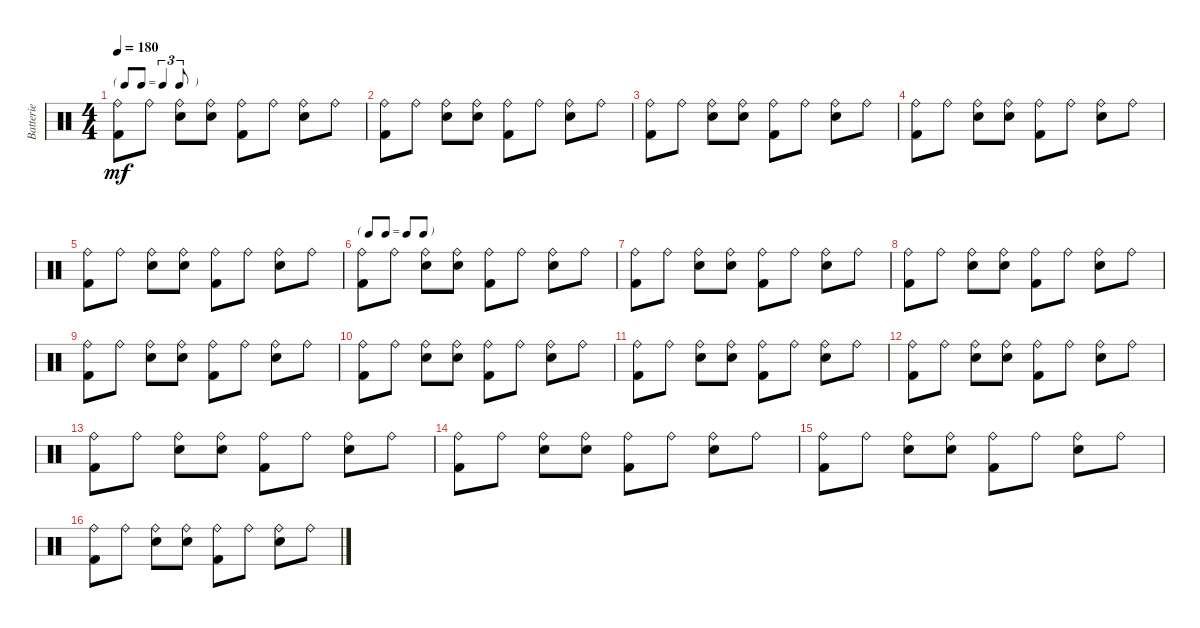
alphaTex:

\track ("Batterie" "Batterie") {instrument percussion}
\staff {score}
\articulation defaults
\ts (4 4)
\tf triplet8th
\tempo 180
\clef neutral
\ks c
("Kick (hit) 2" "Ride (bell)").8{dy mf} "Ride (bell)".8 ("Electric Snare (hit)" "Ride (bell)").8 ("Electric Snare (hit)" "Ride (bell)").8 ("Kick (hit) 2" "Ride (bell)").8 "Ride (bell)".8 ("Electric Snare (hit)" "Ride (bell)").8 "Ride (bell)".8 |
("Kick (hit) 2" "Ride (bell)").8 "Ride (bell)".8 ("Electric Snare (hit)" "Ride (bell)").8 ("Electric Snare (hit)" "Ride (bell)").8 ("Kick (hit) 2" "Ride (bell)").8 "Ride (bell)".8 ("Electric Snare (hit)" "Ride (bell)").8 "Ride (bell)".8 |
("Kick (hit) 2" "Ride (bell)").8 "Ride (bell)".8 ("Electric Snare (hit)" "Ride (bell)").8 ("Electric Snare (hit)" "Ride (bell)").8 ("Kick (hit) 2" "Ride (bell)").8 "Ride (bell)".8 ("Electric Snare (hit)" "Ride (bell)").8 "Ride (bell)".8 |
("Kick (hit) 2" "Ride (bell)").8 "Ride (bell)".8 ("Electric Snare (hit)" "Ride (bell)").8 ("Electric Snare (hit)" "Ride (bell)").8 ("Kick (hit) 2" "Ride (bell)").8 "Ride (bell)".8 ("Electric Snare (hit)" "Ride (bell)").8 "Ride (bell)".8 |
("Kick (hit) 2" "Ride (bell)").8 "Ride (bell)".8 ("Electric Snare (hit)" "Ride (bell)").8 ("Electric Snare (hit)" "Ride (bell)").8 ("Kick (hit) 2" "Ride (bell)").8 "Ride (bell)".8 ("Electric Snare (hit)" "Ride (bell)").8 "Ride (bell)".8 |
\tf none
("Kick (hit) 2" "Ride (bell)").8 "Ride (bell)".8 ("Electric Snare (hit)" "Ride (bell)").8 ("Electric Snare (hit)" "Ride (bell)").8 ("Kick (hit) 2" "Ride (bell)").8 "Ride (bell)".8 ("Electric Snare (hit)" "Ride (bell)").8 "Ride (bell)".8 |
("Kick (hit) 2" "Ride (bell)").8 "Ride (bell)".8 ("Electric Snare (hit)" "Ride (bell)").8 ("Electric Snare (hit)" "Ride (bell)").8 ("Kick (hit) 2" "Ride (bell)").8 "Ride (bell)".8 ("Electric Snare (hit)" "Ride (bell)").8 "Ride (bell)".8 |
("Kick (hit) 2" "Ride (bell)").8 "Ride (bell)".8 ("Electric Snare (hit)" "Ride (bell)").8 ("Electric Snare (hit)" "Ride (bell)").8 ("Kick (hit) 2" "Ride (bell)").8 "Ride (bell)".8 ("Electric Snare (hit)" "Ride (bell)").8 "Ride (bell)".8 |
("Kick (hit) 2" "Ride (bell)").8 "Ride (bell)".8 ("Electric Snare (hit)" "Ride (bell)").8 ("Electric Snare (hit)" "Ride (bell)").8 ("Kick (hit) 2" "Ride (bell)").8 "Ride (bell)".8 ("Electric Snare (hit)" "Ride (bell)").8 "Ride (bell)".8 |
("Kick (hit) 2" "Ride (bell)").8 "Ride (bell)".8 ("Electric Snare (hit)" "Ride (bell)").8 ("Electric Snare (hit)" "Ride (bell)").8 ("Kick (hit) 2" "Ride (bell)").8 "Ride (bell)".8 ("Electric Snare (hit)" "Ride (bell)").8 "Ride (bell)".8 |
("Kick (hit) 2" "Ride (bell)").8 "Ride (bell)".8 ("Electric Snare (hit)" "Ride (bell)").8 ("Electric Snare (hit)" "Ride (bell)").8 ("Kick (hit) 2" "Ride (bell)").8 "Ride (bell)".8 ("Electric Snare (hit)" "Ride (bell)").8 "Ride (bell)".8 |
("Kick (hit) 2" "Ride (bell)").8 "Ride (bell)".8 ("Electric Snare (hit)" "Ride (bell)").8 ("Electric Snare (hit)" "Ride (bell)").8 ("Kick (hit) 2" "Ride (bell)").8 "Ride (bell)".8 ("Electric Snare (hit)" "Ride (bell)").8 "Ride (bell)".8 |
("Kick (hit) 2" "Ride (bell)").8 "Ride (bell)".8 ("Electric Snare (hit)" "Ride (bell)").8 ("Electric Snare (hit)" "Ride (bell)").8 ("Kick (hit) 2" "Ride (bell)").8 "Ride (bell)".8 ("Electric Snare (hit)" "Ride (bell)").8 "Ride (bell)".8 |
("Kick (hit) 2" "Ride (bell)").8 "Ride (bell)".8 ("Electric Snare (hit)" "Ride (bell)").8 ("Electric Snare (hit)" "Ride (bell)").8 ("Kick (hit) 2" "Ride (bell)").8 "Ride (bell)".8 ("Electric Snare (hit)" "Ride (bell)").8 "Ride (bell)".8 |
("Kick (hit) 2" "Ride (bell)").8 "Ride (bell)".8 ("Electric Snare (hit)" "Ride (bell)").8 ("Electric Snare (hit)" "Ride (bell)").8 ("Kick (hit) 2" "Ride (bell)").8 "Ride (bell)".8 ("Electric Snare (hit)" "Ride (bell)").8 "Ride (bell)".8 |
("Kick (hit) 2" "Ride (bell)").8 "Ride (bell)".8 ("Electric Snare (hit)" "Ride (bell)").8 ("Electric Snare (hit)" "Ride (bell)").8 ("Kick (hit) 2" "Ride (bell)").8 "Ride (bell)".8 ("Electric Snare (hit)" "Ride (bell)").8 "Ride (bell)".8
